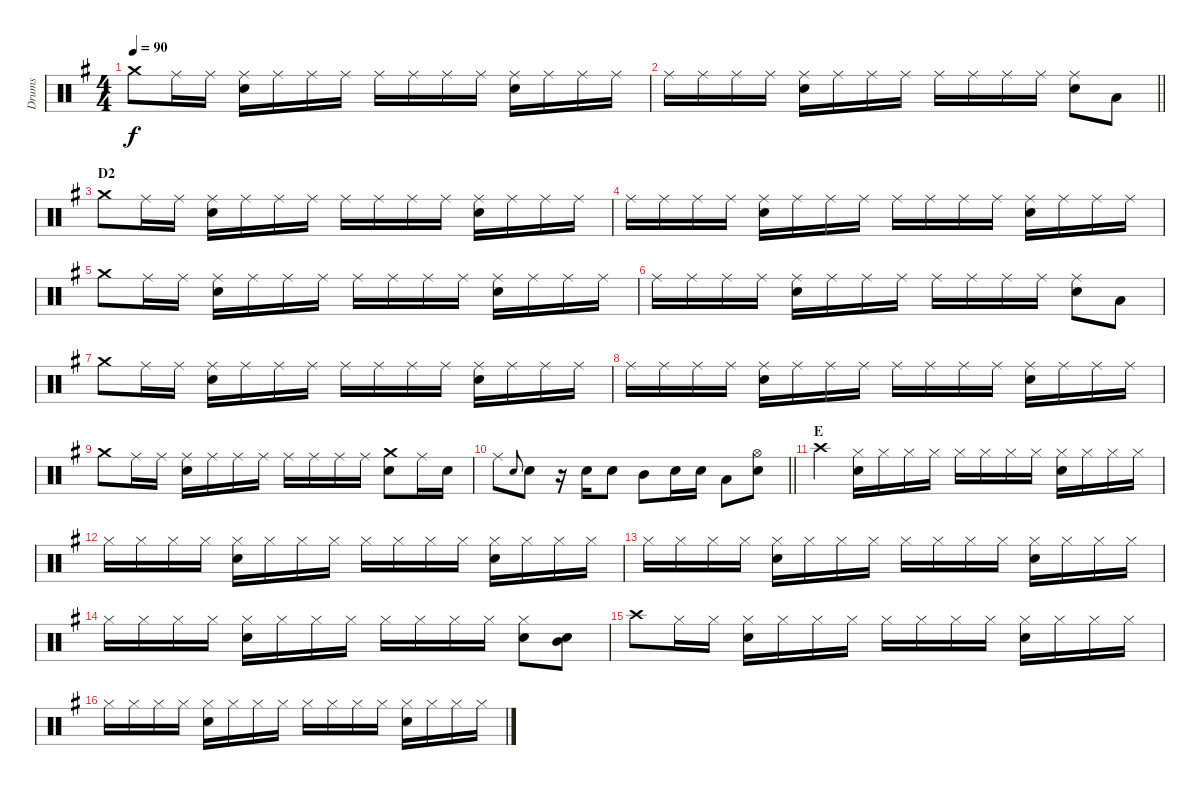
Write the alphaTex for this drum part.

\track ("Drums" "Drums") {instrument percussion}
\staff {score}
\articulation defaults
\ts (4 4)
\tempo 90
\clef neutral
\ks g "Crash medium (hit)".8{dy f} "Ride (middle)".16 "Ride (middle)".16
("Ride (middle)" "Snare (hit) 2").16 "Ride (middle)".16 "Ride (middle)".16 "Ride (middle)".16 "Ride (middle)".16 "Ride (middle)".16 "Ride (middle)".16 "Ride (middle)".16 ("Ride (middle)" "Snare (hit) 2").16 "Ride (middle)".16 "Ride (middle)".16 "Ride (middle)".16 |
\barLineRight lightlight "Ride (middle)".16 "Ride (middle)".16 "Ride (middle)".16 "Ride (middle)".16
("Ride (middle)" "Snare (hit) 2").16 "Ride (middle)".16 "Ride (middle)".16 "Ride (middle)".16 "Ride (middle)".16 "Ride (middle)".16 "Ride (middle)".16 "Ride (middle)".16 ("Ride (middle)" "Snare (hit) 2").8 "Low Tom (hit)".8 |
\section ("" "D2")
"Crash medium (hit)".8 "Ride (middle)".16 "Ride (middle)".16 ("Ride (middle)" "Snare (hit) 2").16 "Ride (middle)".16 "Ride (middle)".16 "Ride (middle)".16 "Ride (middle)".16 "Ride (middle)".16 "Ride (middle)".16 "Ride (middle)".16 ("Ride (middle)" "Snare (hit) 2").16 "Ride (middle)".16 "Ride (middle)".16 "Ride (middle)".16 |
"Ride (middle)".16 "Ride (middle)".16 "Ride (middle)".16 "Ride (middle)".16 ("Ride (middle)" "Snare (hit) 2").16 "Ride (middle)".16 "Ride (middle)".16 "Ride (middle)".16 "Ride (middle)".16 "Ride (middle)".16 "Ride (middle)".16 "Ride (middle)".16 ("Ride (middle)" "Snare (hit) 2").16 "Ride (middle)".16 "Ride (middle)".16 "Ride (middle)".16 |
"Crash medium (hit)".8 "Ride (middle)".16 "Ride (middle)".16 ("Ride (middle)" "Snare (hit) 2").16 "Ride (middle)".16 "Ride (middle)".16 "Ride (middle)".16 "Ride (middle)".16 "Ride (middle)".16 "Ride (middle)".16 "Ride (middle)".16 ("Ride (middle)" "Snare (hit) 2").16 "Ride (middle)".16 "Ride (middle)".16 "Ride (middle)".16 |
"Ride (middle)".16 "Ride (middle)".16 "Ride (middle)".16 "Ride (middle)".16 ("Ride (middle)" "Snare (hit) 2").16 "Ride (middle)".16 "Ride (middle)".16 "Ride (middle)".16 "Ride (middle)".16 "Ride (middle)".16 "Ride (middle)".16 "Ride (middle)".16 ("Ride (middle)" "Snare (hit) 2").8 "Low Tom (hit)".8 |
"Crash medium (hit)".8 "Ride (middle)".16 "Ride (middle)".16 ("Ride (middle)" "Snare (hit) 2").16 "Ride (middle)".16 "Ride (middle)".16 "Ride (middle)".16 "Ride (middle)".16 "Ride (middle)".16 "Ride (middle)".16 "Ride (middle)".16 ("Ride (middle)" "Snare (hit) 2").16 "Ride (middle)".16 "Ride (middle)".16 "Ride (middle)".16 |
"Ride (middle)".16 "Ride (middle)".16 "Ride (middle)".16 "Ride (middle)".16 ("Ride (middle)" "Snare (hit) 2").16 "Ride (middle)".16 "Ride (middle)".16 "Ride (middle)".16 "Ride (middle)".16 "Ride (middle)".16 "Ride (middle)".16 "Ride (middle)".16 ("Ride (middle)" "Snare (hit) 2").16 "Ride (middle)".16 "Ride (middle)".16 "Ride (middle)".16 |
"Crash medium (hit)".8 "Ride (middle)".16 "Ride (middle)".16 ("Ride (middle)" "Snare (hit) 2").16 "Ride (middle)".16 "Ride (middle)".16 "Ride (middle)".16 "Ride (middle)".16 "Ride (middle)".16 "Ride (middle)".16 "Ride (middle)".16 ("Crash medium (hit)" "Snare (hit) 2").8 "Ride (middle)".16 "Snare (hit) 2".16 |
\barLineRight lightlight "Ride (middle)".8 "Snare (hit) 2".8{gr onbeat} "Snare (hit) 2".8
r.16 "Snare (hit) 2".16 "Snare (hit) 2".8 "Mid Tom (hit)".8 "Snare (hit) 2".16 "Snare (hit) 2".16 "Low Tom (hit)".8 ("Hi-Hat (open)" "Snare (hit) 2").8 |
\section ("" "E")
"Crash high (hit)".4 ("Hi-Hat (closed)" "Snare (hit) 2").16 "Hi-Hat (closed)".16 "Hi-Hat (closed)".16 "Hi-Hat (closed)".16 "Hi-Hat (closed)".16 "Hi-Hat (closed)".16 "Hi-Hat (closed)".16 "Hi-Hat (closed)".16 ("Hi-Hat (closed)" "Snare (hit) 2").16 "Hi-Hat (closed)".16 "Hi-Hat (closed)".16 "Hi-Hat (closed)".16 |
"Hi-Hat (closed)".16 "Hi-Hat (closed)".16 "Hi-Hat (closed)".16 "Hi-Hat (closed)".16 ("Hi-Hat (closed)" "Snare (hit) 2").16 "Hi-Hat (closed)".16 "Hi-Hat (closed)".16 "Hi-Hat (closed)".16 "Hi-Hat (closed)".16 "Hi-Hat (closed)".16 "Hi-Hat (closed)".16 "Hi-Hat (closed)".16 ("Hi-Hat (closed)" "Snare (hit) 2").16 "Hi-Hat (closed)".16 "Hi-Hat (closed)".16 "Hi-Hat (closed)".16 |
"Hi-Hat (closed)".16 "Hi-Hat (closed)".16 "Hi-Hat (closed)".16 "Hi-Hat (closed)".16 ("Hi-Hat (closed)" "Snare (hit) 2").16 "Hi-Hat (closed)".16 "Hi-Hat (closed)".16 "Hi-Hat (closed)".16 "Hi-Hat (closed)".16 "Hi-Hat (closed)".16 "Hi-Hat (closed)".16 "Hi-Hat (closed)".16 ("Hi-Hat (closed)" "Snare (hit) 2").16 "Hi-Hat (closed)".16 "Hi-Hat (closed)".16 "Hi-Hat (closed)".16 |
"Hi-Hat (closed)".16 "Hi-Hat (closed)".16 "Hi-Hat (closed)".16 "Hi-Hat (closed)".16 ("Hi-Hat (closed)" "Snare (hit) 2").16 "Hi-Hat (closed)".16 "Hi-Hat (closed)".16 "Hi-Hat (closed)".16 "Hi-Hat (closed)".16 "Hi-Hat (closed)".16 "Hi-Hat (closed)".16 "Hi-Hat (closed)".16 ("Hi-Hat (closed)" "Snare (hit) 2").8 ("Mid Tom (hit)" "Snare (hit) 2").8 |
"Crash high (hit)".8 "Hi-Hat (closed)".16 "Hi-Hat (closed)".16 ("Hi-Hat (closed)" "Snare (hit) 2").16 "Hi-Hat (closed)".16 "Hi-Hat (closed)".16 "Hi-Hat (closed)".16 "Hi-Hat (closed)".16 "Hi-Hat (closed)".16 "Hi-Hat (closed)".16 "Hi-Hat (closed)".16 ("Hi-Hat (closed)" "Snare (hit) 2").16 "Hi-Hat (closed)".16 "Hi-Hat (closed)".16 "Hi-Hat (closed)".16 |
"Hi-Hat (closed)".16 "Hi-Hat (closed)".16 "Hi-Hat (closed)".16 "Hi-Hat (closed)".16 ("Hi-Hat (closed)" "Snare (hit) 2").16 "Hi-Hat (closed)".16 "Hi-Hat (closed)".16 "Hi-Hat (closed)".16 "Hi-Hat (closed)".16 "Hi-Hat (closed)".16 "Hi-Hat (closed)".16 "Hi-Hat (closed)".16 ("Hi-Hat (closed)" "Snare (hit) 2").16 "Hi-Hat (closed)".16 "Hi-Hat (closed)".16 "Hi-Hat (closed)".16
